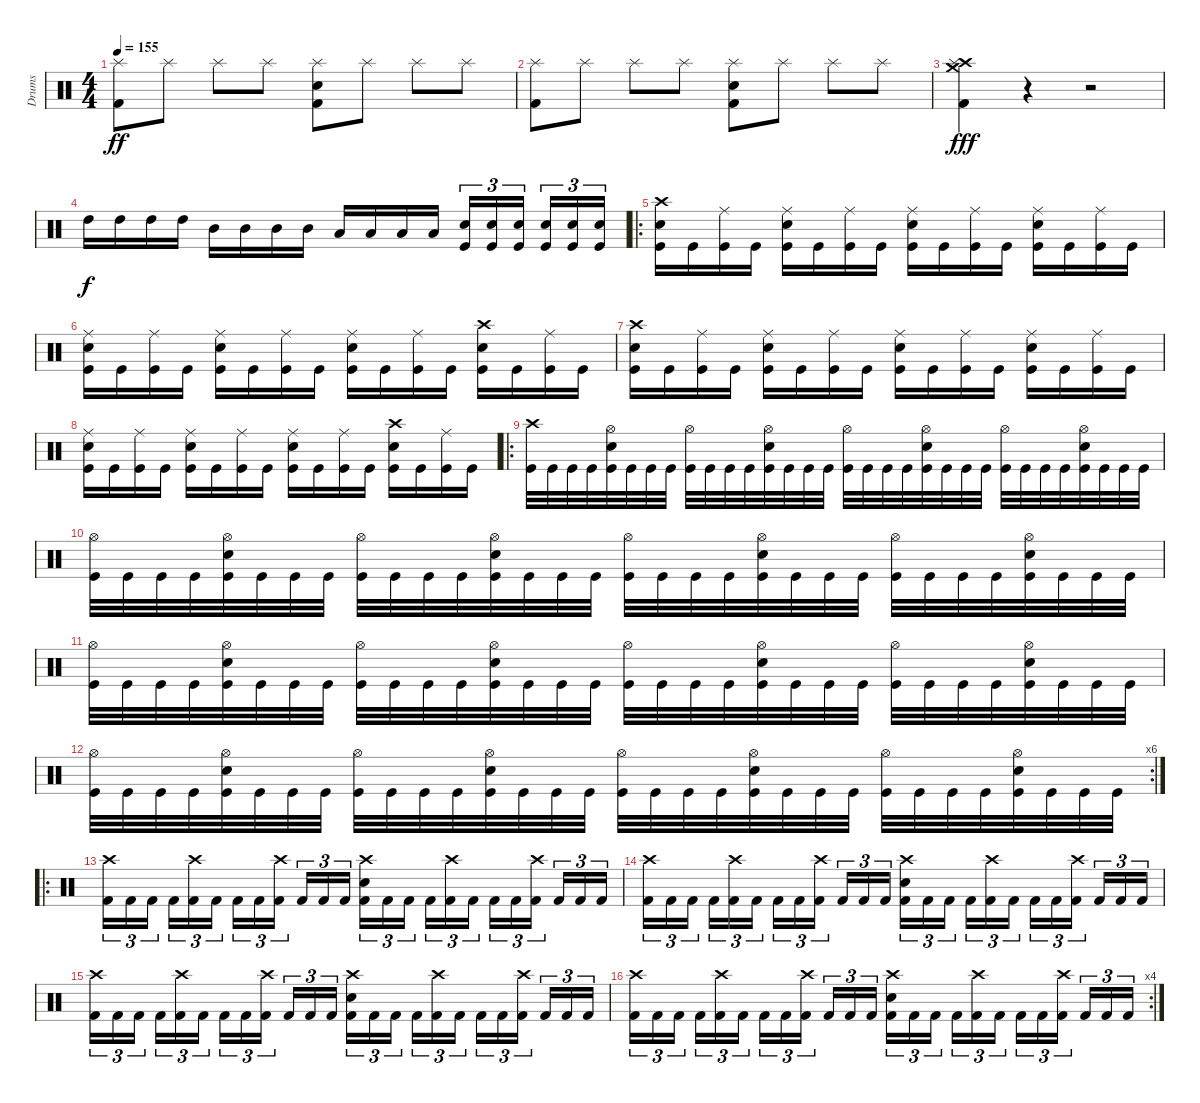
\track ("Drums" "Drums") {instrument percussion}
\staff {score}
\articulation defaults
\ts (4 4)
\tempo 155
\clef neutral
\ks c
("Kick (hit) 2" "Splash (hit)").8{dy ff} "Splash (hit)".8 "Splash (hit)".8 "Splash (hit)".8 ("Kick (hit) 2" "Electric Snare (hit)" "Splash (hit)").8 "Splash (hit)".8 "Splash (hit)".8 "Splash (hit)".8 |
("Kick (hit) 2" "Splash (hit)").8 "Splash (hit)".8 "Splash (hit)".8 "Splash (hit)".8 ("Kick (hit) 2" "Electric Snare (hit)" "Splash (hit)").8 "Splash (hit)".8 "Splash (hit)".8 "Splash (hit)".8 |
("Crash high (hit)" "Splash (hit)" "Kick (hit) 2" "Crash medium (hit)").4{dy fff} r.4 r.2 |
"High Tom (hit)".16{dy f} "High Tom (hit)".16 "High Tom (hit)".16 "High Tom (hit)".16 "Mid Tom (hit)".16 "Mid Tom (hit)".16 "Mid Tom (hit)".16 "Mid Tom (hit)".16 "Low Tom (hit)".16 "Low Tom (hit)".16 "Low Tom (hit)".16 "Low Tom (hit)".16 ("Kick (hit)" "Electric Snare (hit)").16{tu (3 2)} ("Kick (hit)" "Electric Snare (hit)").16{tu (3 2)} ("Kick (hit)" "Electric Snare (hit)").16{tu (3 2)} ("Kick (hit)" "Electric Snare (hit)").16{tu (3 2)} ("Kick (hit)" "Electric Snare (hit)").16{tu (3 2)} ("Kick (hit)" "Snare (hit) 2").16{tu (3 2)} |
\ro
("Crash high (hit)" "Snare (hit) 2" "Kick (hit)").16 "Kick (hit)".16 ("Ride (middle)" "Kick (hit)").16 "Kick (hit)".16 ("Ride (middle)" "Snare (hit) 2" "Kick (hit)").16 "Kick (hit)".16 ("Ride (middle)" "Kick (hit)").16 "Kick (hit)".16 ("Ride (middle)" "Snare (hit) 2" "Kick (hit)").16 "Kick (hit)".16 ("Ride (middle)" "Kick (hit)").16 "Kick (hit)".16 ("Ride (middle)" "Snare (hit) 2" "Kick (hit)").16 "Kick (hit)".16 ("Ride (middle)" "Kick (hit)").16 "Kick (hit)".16 |
("Ride (middle)" "Snare (hit) 2" "Kick (hit)").16 "Kick (hit)".16 ("Ride (middle)" "Kick (hit)").16 "Kick (hit)".16 ("Ride (middle)" "Snare (hit) 2" "Kick (hit)").16 "Kick (hit)".16 ("Ride (middle)" "Kick (hit)").16 "Kick (hit)".16 ("Ride (middle)" "Snare (hit) 2" "Kick (hit)").16 "Kick (hit)".16 ("Ride (middle)" "Kick (hit)").16 "Kick (hit)".16 ("Crash high (hit)" "Snare (hit) 2" "Kick (hit)").16 "Kick (hit)".16 ("Ride (middle)" "Kick (hit)").16 "Kick (hit)".16 |
("Crash high (hit)" "Snare (hit) 2" "Kick (hit)").16 "Kick (hit)".16 ("Ride (middle)" "Kick (hit)").16 "Kick (hit)".16 ("Ride (middle)" "Snare (hit) 2" "Kick (hit)").16 "Kick (hit)".16 ("Ride (middle)" "Kick (hit)").16 "Kick (hit)".16 ("Ride (middle)" "Snare (hit) 2" "Kick (hit)").16 "Kick (hit)".16 ("Ride (middle)" "Kick (hit)").16 "Kick (hit)".16 ("Ride (middle)" "Snare (hit) 2" "Kick (hit)").16 "Kick (hit)".16 ("Ride (middle)" "Kick (hit)").16 "Kick (hit)".16 |
("Ride (middle)" "Snare (hit) 2" "Kick (hit)").16 "Kick (hit)".16 ("Ride (middle)" "Kick (hit)").16 "Kick (hit)".16 ("Ride (middle)" "Snare (hit) 2" "Kick (hit)").16 "Kick (hit)".16 ("Ride (middle)" "Kick (hit)").16 "Kick (hit)".16 ("Ride (middle)" "Snare (hit) 2" "Kick (hit)").16 "Kick (hit)".16 ("Ride (middle)" "Kick (hit)").16 "Kick (hit)".16 ("Crash high (hit)" "Snare (hit) 2" "Kick (hit)").16 "Kick (hit)".16 ("Ride (middle)" "Kick (hit)").16 "Kick (hit)".16 |
\ro
("Kick (hit)" "Crash high (hit)").32 "Kick (hit)".32 "Kick (hit)".32 "Kick (hit)".32 ("Kick (hit)" "Snare (hit) 2" "Hi-Hat (open)").32 "Kick (hit)".32 "Kick (hit)".32 "Kick (hit)".32 ("Kick (hit)" "Hi-Hat (open)").32 "Kick (hit)".32 "Kick (hit)".32 "Kick (hit)".32 ("Kick (hit)" "Snare (hit) 2" "Hi-Hat (open)").32 "Kick (hit)".32 "Kick (hit)".32 "Kick (hit)".32 ("Kick (hit)" "Hi-Hat (open)").32 "Kick (hit)".32 "Kick (hit)".32 "Kick (hit)".32 ("Kick (hit)" "Snare (hit) 2" "Hi-Hat (open)").32 "Kick (hit)".32 "Kick (hit)".32 "Kick (hit)".32 ("Kick (hit)" "Hi-Hat (open)").32 "Kick (hit)".32 "Kick (hit)".32 "Kick (hit)".32 ("Kick (hit)" "Snare (hit) 2" "Hi-Hat (open)").32 "Kick (hit)".32 "Kick (hit)".32 "Kick (hit)".32 |
("Kick (hit)" "Hi-Hat (open)").32 "Kick (hit)".32 "Kick (hit)".32 "Kick (hit)".32 ("Kick (hit)" "Snare (hit) 2" "Hi-Hat (open)").32 "Kick (hit)".32 "Kick (hit)".32 "Kick (hit)".32 ("Kick (hit)" "Hi-Hat (open)").32 "Kick (hit)".32 "Kick (hit)".32 "Kick (hit)".32 ("Kick (hit)" "Snare (hit) 2" "Hi-Hat (open)").32 "Kick (hit)".32 "Kick (hit)".32 "Kick (hit)".32 ("Kick (hit)" "Hi-Hat (open)").32 "Kick (hit)".32 "Kick (hit)".32 "Kick (hit)".32 ("Kick (hit)" "Snare (hit) 2" "Hi-Hat (open)").32 "Kick (hit)".32 "Kick (hit)".32 "Kick (hit)".32 ("Kick (hit)" "Hi-Hat (open)").32 "Kick (hit)".32 "Kick (hit)".32 "Kick (hit)".32 ("Kick (hit)" "Snare (hit) 2" "Hi-Hat (open)").32 "Kick (hit)".32 "Kick (hit)".32 "Kick (hit)".32 |
("Kick (hit)" "Hi-Hat (open)").32 "Kick (hit)".32 "Kick (hit)".32 "Kick (hit)".32 ("Kick (hit)" "Snare (hit) 2" "Hi-Hat (open)").32 "Kick (hit)".32 "Kick (hit)".32 "Kick (hit)".32 ("Kick (hit)" "Hi-Hat (open)").32 "Kick (hit)".32 "Kick (hit)".32 "Kick (hit)".32 ("Kick (hit)" "Snare (hit) 2" "Hi-Hat (open)").32 "Kick (hit)".32 "Kick (hit)".32 "Kick (hit)".32 ("Kick (hit)" "Hi-Hat (open)").32 "Kick (hit)".32 "Kick (hit)".32 "Kick (hit)".32 ("Kick (hit)" "Snare (hit) 2" "Hi-Hat (open)").32 "Kick (hit)".32 "Kick (hit)".32 "Kick (hit)".32 ("Kick (hit)" "Hi-Hat (open)").32 "Kick (hit)".32 "Kick (hit)".32 "Kick (hit)".32 ("Kick (hit)" "Snare (hit) 2" "Hi-Hat (open)").32 "Kick (hit)".32 "Kick (hit)".32 "Kick (hit)".32 |
\rc 6
("Kick (hit)" "Hi-Hat (open)").32 "Kick (hit)".32 "Kick (hit)".32 "Kick (hit)".32 ("Kick (hit)" "Snare (hit) 2" "Hi-Hat (open)").32 "Kick (hit)".32 "Kick (hit)".32 "Kick (hit)".32 ("Kick (hit)" "Hi-Hat (open)").32 "Kick (hit)".32 "Kick (hit)".32 "Kick (hit)".32 ("Kick (hit)" "Snare (hit) 2" "Hi-Hat (open)").32 "Kick (hit)".32 "Kick (hit)".32 "Kick (hit)".32 ("Kick (hit)" "Hi-Hat (open)").32 "Kick (hit)".32 "Kick (hit)".32 "Kick (hit)".32 ("Kick (hit)" "Snare (hit) 2" "Hi-Hat (open)").32 "Kick (hit)".32 "Kick (hit)".32 "Kick (hit)".32 ("Kick (hit)" "Hi-Hat (open)").32 "Kick (hit)".32 "Kick (hit)".32 "Kick (hit)".32 ("Kick (hit)" "Snare (hit) 2" "Hi-Hat (open)").32 "Kick (hit)".32 "Kick (hit)".32 "Kick (hit)".32 |
\ro
("Crash high (hit)" "Kick (hit) 2").16{tu (3 2)} "Kick (hit) 2".16{tu (3 2)} "Kick (hit) 2".16{tu (3 2)} "Kick (hit) 2".16{tu (3 2)} ("Crash high (hit)" "Kick (hit) 2").16{tu (3 2)} "Kick (hit) 2".16{tu (3 2)} "Kick (hit) 2".16{tu (3 2)} "Kick (hit) 2".16{tu (3 2)} ("Crash high (hit)" "Kick (hit) 2").16{tu (3 2)} "Kick (hit) 2".16{tu (3 2)} "Kick (hit) 2".16{tu (3 2)} "Kick (hit) 2".16{tu (3 2)} ("Crash high (hit)" "Electric Snare (hit)" "Kick (hit) 2").16{tu (3 2)} "Kick (hit) 2".16{tu (3 2)} "Kick (hit) 2".16{tu (3 2)} "Kick (hit) 2".16{tu (3 2)} ("Crash high (hit)" "Kick (hit) 2").16{tu (3 2)} "Kick (hit) 2".16{tu (3 2)} "Kick (hit) 2".16{tu (3 2)} "Kick (hit) 2".16{tu (3 2)} ("Crash high (hit)" "Kick (hit) 2").16{tu (3 2)} "Kick (hit) 2".16{tu (3 2)} "Kick (hit) 2".16{tu (3 2)} "Kick (hit) 2".16{tu (3 2)} |
("Crash high (hit)" "Kick (hit) 2").16{tu (3 2)} "Kick (hit) 2".16{tu (3 2)} "Kick (hit) 2".16{tu (3 2)} "Kick (hit) 2".16{tu (3 2)} ("Crash high (hit)" "Kick (hit) 2").16{tu (3 2)} "Kick (hit) 2".16{tu (3 2)} "Kick (hit) 2".16{tu (3 2)} "Kick (hit) 2".16{tu (3 2)} ("Crash high (hit)" "Kick (hit) 2").16{tu (3 2)} "Kick (hit) 2".16{tu (3 2)} "Kick (hit) 2".16{tu (3 2)} "Kick (hit) 2".16{tu (3 2)} ("Crash high (hit)" "Electric Snare (hit)" "Kick (hit) 2").16{tu (3 2)} "Kick (hit) 2".16{tu (3 2)} "Kick (hit) 2".16{tu (3 2)} "Kick (hit) 2".16{tu (3 2)} ("Crash high (hit)" "Kick (hit) 2").16{tu (3 2)} "Kick (hit) 2".16{tu (3 2)} "Kick (hit) 2".16{tu (3 2)} "Kick (hit) 2".16{tu (3 2)} ("Crash high (hit)" "Kick (hit) 2").16{tu (3 2)} "Kick (hit) 2".16{tu (3 2)} "Kick (hit) 2".16{tu (3 2)} "Kick (hit) 2".16{tu (3 2)} |
("Crash high (hit)" "Kick (hit) 2").16{tu (3 2)} "Kick (hit) 2".16{tu (3 2)} "Kick (hit) 2".16{tu (3 2)} "Kick (hit) 2".16{tu (3 2)} ("Crash high (hit)" "Kick (hit) 2").16{tu (3 2)} "Kick (hit) 2".16{tu (3 2)} "Kick (hit) 2".16{tu (3 2)} "Kick (hit) 2".16{tu (3 2)} ("Crash high (hit)" "Kick (hit) 2").16{tu (3 2)} "Kick (hit) 2".16{tu (3 2)} "Kick (hit) 2".16{tu (3 2)} "Kick (hit) 2".16{tu (3 2)} ("Crash high (hit)" "Electric Snare (hit)" "Kick (hit) 2").16{tu (3 2)} "Kick (hit) 2".16{tu (3 2)} "Kick (hit) 2".16{tu (3 2)} "Kick (hit) 2".16{tu (3 2)} ("Crash high (hit)" "Kick (hit) 2").16{tu (3 2)} "Kick (hit) 2".16{tu (3 2)} "Kick (hit) 2".16{tu (3 2)} "Kick (hit) 2".16{tu (3 2)} ("Crash high (hit)" "Kick (hit) 2").16{tu (3 2)} "Kick (hit) 2".16{tu (3 2)} "Kick (hit) 2".16{tu (3 2)} "Kick (hit) 2".16{tu (3 2)} |
\rc 4
("Crash high (hit)" "Kick (hit) 2").16{tu (3 2)} "Kick (hit) 2".16{tu (3 2)} "Kick (hit) 2".16{tu (3 2)} "Kick (hit) 2".16{tu (3 2)} ("Crash high (hit)" "Kick (hit) 2").16{tu (3 2)} "Kick (hit) 2".16{tu (3 2)} "Kick (hit) 2".16{tu (3 2)} "Kick (hit) 2".16{tu (3 2)} ("Crash high (hit)" "Kick (hit) 2").16{tu (3 2)} "Kick (hit) 2".16{tu (3 2)} "Kick (hit) 2".16{tu (3 2)} "Kick (hit) 2".16{tu (3 2)} ("Crash high (hit)" "Electric Snare (hit)" "Kick (hit) 2").16{tu (3 2)} "Kick (hit) 2".16{tu (3 2)} "Kick (hit) 2".16{tu (3 2)} "Kick (hit) 2".16{tu (3 2)} ("Crash high (hit)" "Kick (hit) 2").16{tu (3 2)} "Kick (hit) 2".16{tu (3 2)} "Kick (hit) 2".16{tu (3 2)} "Kick (hit) 2".16{tu (3 2)} ("Crash high (hit)" "Kick (hit) 2").16{tu (3 2)} "Kick (hit) 2".16{tu (3 2)} "Kick (hit) 2".16{tu (3 2)} "Kick (hit) 2".16{tu (3 2)}
